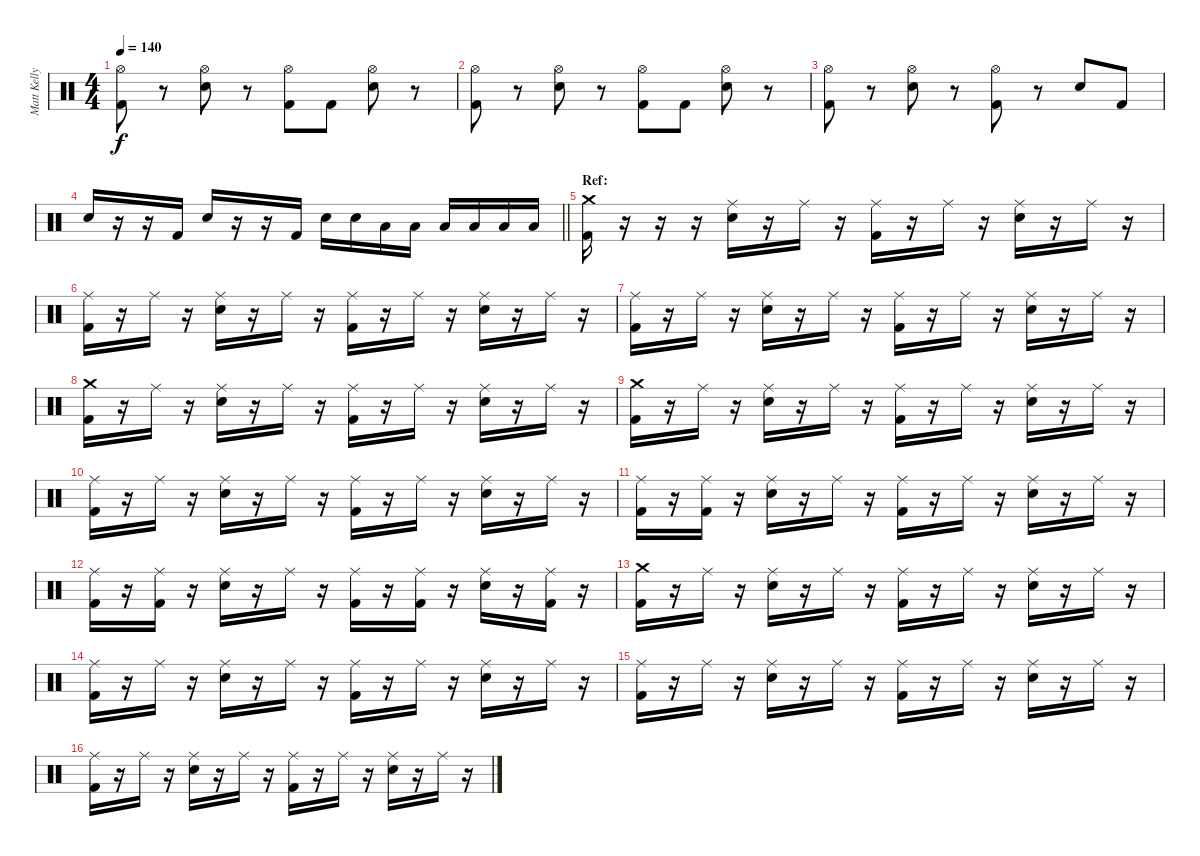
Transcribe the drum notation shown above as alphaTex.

\track ("Matt Kelly" "Matt Kelly") {instrument percussion}
\staff {score}
\articulation defaults
\ts (4 4)
\tempo 140
\clef neutral
\ks c
("Hi-Hat (open)" "Kick (hit) 2").8{dy f} r.8 ("Hi-Hat (open)" "Electric Snare (hit)").8 r.8 ("Hi-Hat (open)" "Kick (hit) 2").8 "Kick (hit) 2".8 ("Hi-Hat (open)" "Electric Snare (hit)").8 r.8 |
("Hi-Hat (open)" "Kick (hit) 2").8 r.8 ("Hi-Hat (open)" "Electric Snare (hit)").8 r.8 ("Hi-Hat (open)" "Kick (hit) 2").8 "Kick (hit) 2".8 ("Hi-Hat (open)" "Electric Snare (hit)").8 r.8 |
("Hi-Hat (open)" "Kick (hit) 2").8 r.8 ("Hi-Hat (open)" "Electric Snare (hit)").8 r.8 ("Hi-Hat (open)" "Kick (hit) 2").8 r.8 "Electric Snare (hit)".8 "Kick (hit) 2".8 |
\barLineRight lightlight "Electric Snare (hit)".16
r.16 r.16 "Kick (hit) 2".16 "Electric Snare (hit)".16 r.16 r.16 "Kick (hit) 2".16 "Electric Snare (hit)".16 "Snare (hit) 2".16 "Low Tom (hit)".16 "Low Tom (hit)".16 "Low Tom (hit)".16 "Low Floor Tom (hit)".16 "Low Floor Tom (hit)".16 "Low Floor Tom (hit)".16 |
\section ("" "Ref:")
("Crash medium (hit)" "Kick (hit) 2").16 r.16 r.16 r.16 ("Ride (middle)" "Snare (hit) 2").16 r.16 "Ride (middle)".16 r.16 ("Ride (middle)" "Kick (hit) 2").16 r.16 "Ride (middle)".16 r.16 ("Ride (middle)" "Snare (hit) 2").16 r.16 "Ride (middle)".16 r.16 |
("Ride (middle)" "Kick (hit) 2").16 r.16 "Ride (middle)".16 r.16 ("Ride (middle)" "Snare (hit) 2").16 r.16 "Ride (middle)".16 r.16 ("Ride (middle)" "Kick (hit) 2").16 r.16 "Ride (middle)".16 r.16 ("Ride (middle)" "Snare (hit) 2").16 r.16 "Ride (middle)".16 r.16 |
("Ride (middle)" "Kick (hit) 2").16 r.16 "Ride (middle)".16 r.16 ("Ride (middle)" "Snare (hit) 2").16 r.16 "Ride (middle)".16 r.16 ("Ride (middle)" "Kick (hit) 2").16 r.16 "Ride (middle)".16 r.16 ("Ride (middle)" "Snare (hit) 2").16 r.16 "Ride (middle)".16 r.16 |
("Crash medium (hit)" "Kick (hit) 2").16 r.16 "Ride (middle)".16 r.16 ("Ride (middle)" "Snare (hit) 2").16 r.16 "Ride (middle)".16 r.16 ("Ride (middle)" "Kick (hit) 2").16 r.16 "Ride (middle)".16 r.16 ("Ride (middle)" "Snare (hit) 2").16 r.16 "Ride (middle)".16 r.16 |
("Crash medium (hit)" "Kick (hit) 2").16 r.16 "Ride (middle)".16 r.16 ("Ride (middle)" "Snare (hit) 2").16 r.16 "Ride (middle)".16 r.16 ("Ride (middle)" "Kick (hit) 2").16 r.16 "Ride (middle)".16 r.16 ("Ride (middle)" "Snare (hit) 2").16 r.16 "Ride (middle)".16 r.16 |
("Ride (middle)" "Kick (hit) 2").16 r.16 "Ride (middle)".16 r.16 ("Ride (middle)" "Snare (hit) 2").16 r.16 "Ride (middle)".16 r.16 ("Ride (middle)" "Kick (hit) 2").16 r.16 "Ride (middle)".16 r.16 ("Ride (middle)" "Snare (hit) 2").16 r.16 "Ride (middle)".16 r.16 |
("Ride (middle)" "Kick (hit) 2").16 r.16 ("Ride (middle)" "Kick (hit) 2").16 r.16 ("Ride (middle)" "Snare (hit) 2").16 r.16 "Ride (middle)".16 r.16 ("Ride (middle)" "Kick (hit) 2").16 r.16 "Ride (middle)".16 r.16 ("Ride (middle)" "Snare (hit) 2").16 r.16 "Ride (middle)".16 r.16 |
("Ride (middle)" "Kick (hit) 2").16 r.16 ("Ride (middle)" "Kick (hit) 2").16 r.16 ("Ride (middle)" "Snare (hit) 2").16 r.16 "Ride (middle)".16 r.16 ("Ride (middle)" "Kick (hit) 2").16 r.16 ("Ride (middle)" "Kick (hit) 2").16 r.16 ("Ride (middle)" "Snare (hit) 2").16 r.16 ("Ride (middle)" "Kick (hit) 2").16 r.16 |
("Crash medium (hit)" "Kick (hit) 2").16 r.16 "Ride (middle)".16 r.16 ("Ride (middle)" "Snare (hit) 2").16 r.16 "Ride (middle)".16 r.16 ("Ride (middle)" "Kick (hit) 2").16 r.16 "Ride (middle)".16 r.16 ("Ride (middle)" "Snare (hit) 2").16 r.16 "Ride (middle)".16 r.16 |
("Ride (middle)" "Kick (hit) 2").16 r.16 "Ride (middle)".16 r.16 ("Ride (middle)" "Snare (hit) 2").16 r.16 "Ride (middle)".16 r.16 ("Ride (middle)" "Kick (hit) 2").16 r.16 "Ride (middle)".16 r.16 ("Ride (middle)" "Snare (hit) 2").16 r.16 "Ride (middle)".16 r.16 |
("Ride (middle)" "Kick (hit) 2").16 r.16 "Ride (middle)".16 r.16 ("Ride (middle)" "Snare (hit) 2").16 r.16 "Ride (middle)".16 r.16 ("Ride (middle)" "Kick (hit) 2").16 r.16 "Ride (middle)".16 r.16 ("Ride (middle)" "Snare (hit) 2").16 r.16 "Ride (middle)".16 r.16 |
("Ride (middle)" "Kick (hit) 2").16 r.16 "Ride (middle)".16 r.16 ("Ride (middle)" "Snare (hit) 2").16 r.16 "Ride (middle)".16 r.16 ("Ride (middle)" "Kick (hit) 2").16 r.16 "Ride (middle)".16 r.16 ("Ride (middle)" "Snare (hit) 2").16 r.16 "Ride (middle)".16 r.16
